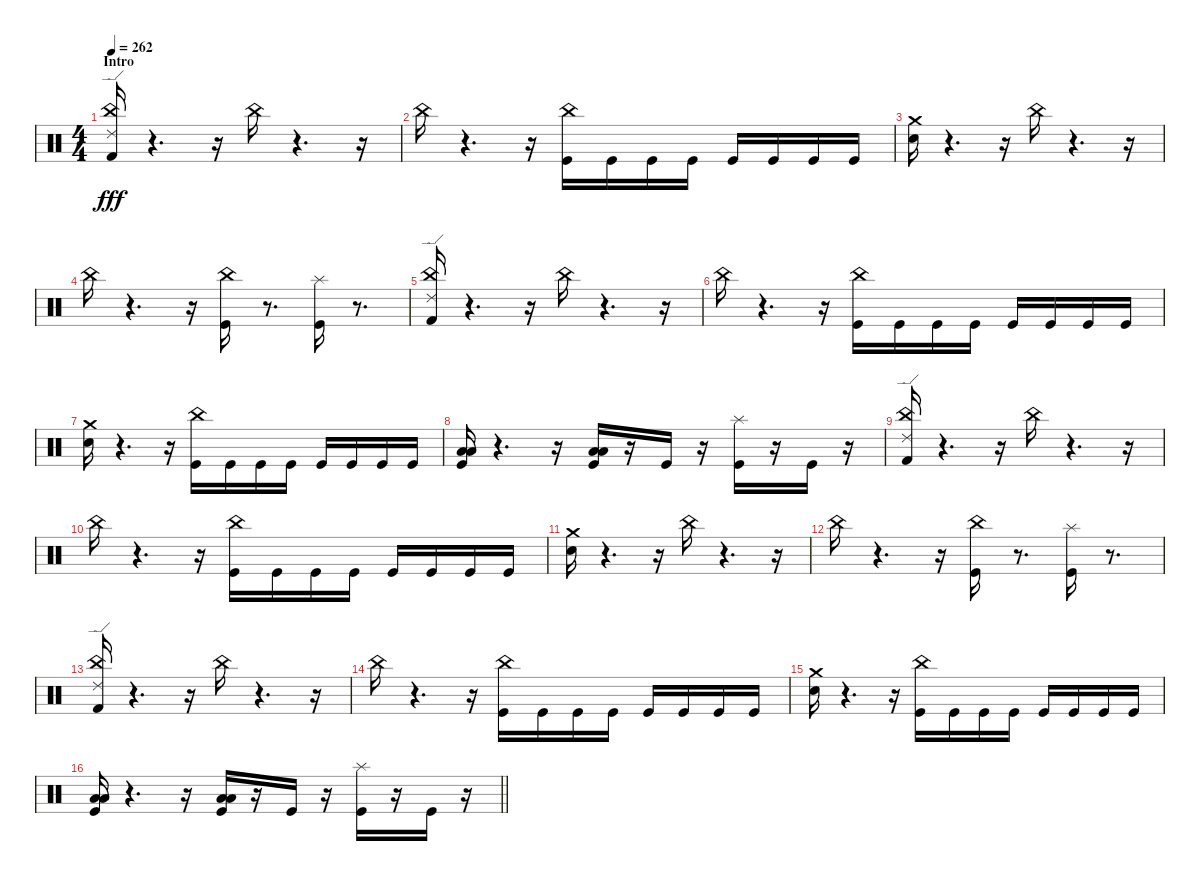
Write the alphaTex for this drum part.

\track "" {instrument percussion}
\staff {score}
\articulation defaults
\ts (4 4)
\section ("" "Intro")
\tempo 262
\clef neutral
\ks c
("Kick (hit) 2" "China (hit)" "Ride (edge) 2").16{dy fff} r.4{d} r.16 "China (hit)".16 r.4{d} r.16 |
"China (hit)".16 r.4{d} r.16 ("Kick (hit)" "China (hit)").16 "Kick (hit)".16 "Kick (hit)".16 "Kick (hit)".16 "Kick (hit)".16 "Kick (hit)".16 "Kick (hit)".16 "Kick (hit)".16 |
("Snare (hit) 2" "Crash medium (hit)").16 r.4{d} r.16 "China (hit)".16 r.4{d} r.16 |
"China (hit)".16 r.4{d} r.16 ("Kick (hit)" "China (hit)").16 r.8{d} ("Kick (hit)" "Splash (hit)").16 r.8{d} |
("Kick (hit) 2" "China (hit)" "Ride (edge) 2").16 r.4{d} r.16 "China (hit)".16 r.4{d} r.16 |
"China (hit)".16 r.4{d} r.16 ("Kick (hit)" "China (hit)").16 "Kick (hit)".16 "Kick (hit)".16 "Kick (hit)".16 "Kick (hit)".16 "Kick (hit)".16 "Kick (hit)".16 "Kick (hit)".16 |
("Snare (hit) 2" "Crash medium (hit)").16 r.4{d} r.16 ("Kick (hit)" "China (hit)").16 "Kick (hit)".16 "Kick (hit)".16 "Kick (hit)".16 "Kick (hit)".16 "Kick (hit)".16 "Kick (hit)".16 "Kick (hit)".16 |
("Kick (hit)" "Low Floor Tom (hit)" "Low Tom (hit)").16 r.4{d} r.16 ("Low Floor Tom (hit)" "Low Tom (hit)" "Kick (hit)").16 r.16 "Kick (hit)".16 r.16 ("Kick (hit)" "Splash (hit)").16 r.16 "Kick (hit)".16 r.16 |
("Kick (hit) 2" "China (hit)" "Ride (edge) 2").16 r.4{d} r.16 "China (hit)".16 r.4{d} r.16 |
"China (hit)".16 r.4{d} r.16 ("Kick (hit)" "China (hit)").16 "Kick (hit)".16 "Kick (hit)".16 "Kick (hit)".16 "Kick (hit)".16 "Kick (hit)".16 "Kick (hit)".16 "Kick (hit)".16 |
("Snare (hit) 2" "Crash medium (hit)").16 r.4{d} r.16 "China (hit)".16 r.4{d} r.16 |
"China (hit)".16 r.4{d} r.16 ("Kick (hit)" "China (hit)").16 r.8{d} ("Kick (hit)" "Splash (hit)").16 r.8{d} |
("Kick (hit) 2" "China (hit)" "Ride (edge) 2").16 r.4{d} r.16 "China (hit)".16 r.4{d} r.16 |
"China (hit)".16 r.4{d} r.16 ("Kick (hit)" "China (hit)").16 "Kick (hit)".16 "Kick (hit)".16 "Kick (hit)".16 "Kick (hit)".16 "Kick (hit)".16 "Kick (hit)".16 "Kick (hit)".16 |
("Snare (hit) 2" "Crash medium (hit)").16 r.4{d} r.16 ("Kick (hit)" "China (hit)").16 "Kick (hit)".16 "Kick (hit)".16 "Kick (hit)".16 "Kick (hit)".16 "Kick (hit)".16 "Kick (hit)".16 "Kick (hit)".16 |
\barLineRight lightlight
("Kick (hit)" "Low Floor Tom (hit)" "Low Tom (hit)").16 r.4{d} r.16 ("Low Floor Tom (hit)" "Low Tom (hit)" "Kick (hit)").16 r.16 "Kick (hit)".16 r.16 ("Kick (hit)" "Splash (hit)").16 r.16 "Kick (hit)".16 r.16
